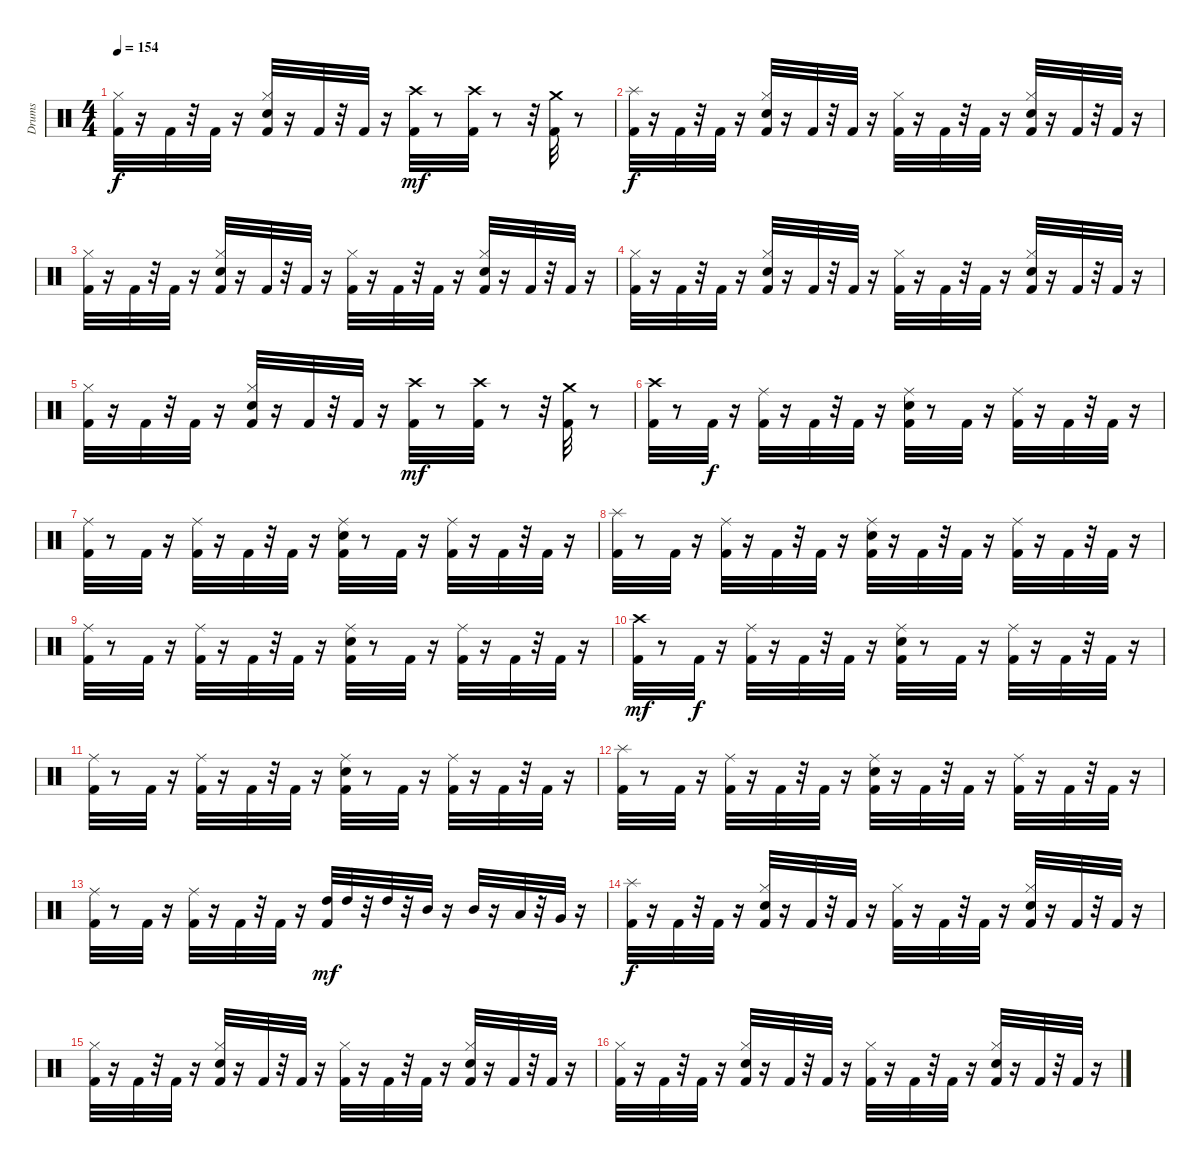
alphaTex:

\track ("Drums" "Drums") {instrument percussion}
\staff {score}
\articulation defaults
\ts (4 4)
\tempo 154
\clef neutral
\ks c
("Kick (hit) 2" "Hi-Hat (closed)").32{dy f} r.16 "Kick (hit) 2".32 r.32 "Kick (hit) 2".32 r.16 ("Kick (hit) 2" "Snare (hit) 2" "Hi-Hat (closed)").32 r.16 "Kick (hit) 2".32 r.32 "Kick (hit) 2".32 r.16 ("Kick (hit) 2" "Crash high (hit)").32{dy mf} r.8 ("Kick (hit) 2" "Crash high (hit)").32 r.8 r.32 ("Kick (hit) 2" "Crash medium (hit)").32 r.8 |
("Kick (hit) 2" "Splash (hit)").32{dy f} r.16 "Kick (hit) 2".32 r.32 "Kick (hit) 2".32 r.16 ("Kick (hit) 2" "Snare (hit) 2" "Hi-Hat (closed)").32 r.16 "Kick (hit) 2".32 r.32 "Kick (hit) 2".32 r.16 ("Kick (hit) 2" "Hi-Hat (closed)").32 r.16 "Kick (hit) 2".32 r.32 "Kick (hit) 2".32 r.16 ("Kick (hit) 2" "Snare (hit) 2" "Hi-Hat (closed)").32 r.16 "Kick (hit) 2".32 r.32 "Kick (hit) 2".32 r.16 |
("Kick (hit) 2" "Hi-Hat (closed)").32 r.16 "Kick (hit) 2".32 r.32 "Kick (hit) 2".32 r.16 ("Kick (hit) 2" "Snare (hit) 2" "Hi-Hat (closed)").32 r.16 "Kick (hit) 2".32 r.32 "Kick (hit) 2".32 r.16 ("Kick (hit) 2" "Hi-Hat (closed)").32 r.16 "Kick (hit) 2".32 r.32 "Kick (hit) 2".32 r.16 ("Kick (hit) 2" "Snare (hit) 2" "Hi-Hat (closed)").32 r.16 "Kick (hit) 2".32 r.32 "Kick (hit) 2".32 r.16 |
("Kick (hit) 2" "Hi-Hat (closed)").32 r.16 "Kick (hit) 2".32 r.32 "Kick (hit) 2".32 r.16 ("Kick (hit) 2" "Snare (hit) 2" "Hi-Hat (closed)").32 r.16 "Kick (hit) 2".32 r.32 "Kick (hit) 2".32 r.16 ("Kick (hit) 2" "Hi-Hat (closed)").32 r.16 "Kick (hit) 2".32 r.32 "Kick (hit) 2".32 r.16 ("Kick (hit) 2" "Snare (hit) 2" "Hi-Hat (closed)").32 r.16 "Kick (hit) 2".32 r.32 "Kick (hit) 2".32 r.16 |
("Kick (hit) 2" "Hi-Hat (closed)").32 r.16 "Kick (hit) 2".32 r.32 "Kick (hit) 2".32 r.16 ("Kick (hit) 2" "Snare (hit) 2" "Hi-Hat (closed)").32 r.16 "Kick (hit) 2".32 r.32 "Kick (hit) 2".32 r.16 ("Kick (hit) 2" "Crash high (hit)").32{dy mf} r.8 ("Kick (hit) 2" "Crash high (hit)").32 r.8 r.32 ("Kick (hit) 2" "Crash medium (hit)").32 r.8 |
("Kick (hit) 2" "Crash high (hit)").32 r.8 "Kick (hit) 2".32{dy f} r.16 ("Kick (hit) 2" "Ride (middle)").32 r.16 "Kick (hit) 2".32 r.32 "Kick (hit) 2".32 r.16 ("Kick (hit) 2" "Snare (hit) 2" "Ride (middle)").32 r.8 "Kick (hit) 2".32 r.16 ("Kick (hit) 2" "Ride (middle)").32 r.16 "Kick (hit) 2".32 r.32 "Kick (hit) 2".32 r.16 |
("Kick (hit) 2" "Ride (middle)").32 r.8 "Kick (hit) 2".32 r.16 ("Kick (hit) 2" "Ride (middle)").32 r.16 "Kick (hit) 2".32 r.32 "Kick (hit) 2".32 r.16 ("Kick (hit) 2" "Snare (hit) 2" "Ride (middle)").32 r.8 "Kick (hit) 2".32 r.16 ("Kick (hit) 2" "Ride (middle)").32 r.16 "Kick (hit) 2".32 r.32 "Kick (hit) 2".32 r.16 |
("Kick (hit) 2" "Splash (hit)").32 r.8 "Kick (hit) 2".32 r.16 ("Kick (hit) 2" "Ride (middle)").32 r.16 "Kick (hit) 2".32 r.32 "Kick (hit) 2".32 r.16 ("Kick (hit) 2" "Snare (hit) 2" "Ride (middle)").32 r.16 "Kick (hit) 2".32 r.32 "Kick (hit) 2".32 r.16 ("Kick (hit) 2" "Ride (middle)").32 r.16 "Kick (hit) 2".32 r.32 "Kick (hit) 2".32 r.16 |
("Kick (hit) 2" "Ride (middle)").32 r.8 "Kick (hit) 2".32 r.16 ("Kick (hit) 2" "Ride (middle)").32 r.16 "Kick (hit) 2".32 r.32 "Kick (hit) 2".32 r.16 ("Kick (hit) 2" "Snare (hit) 2" "Ride (middle)").32 r.8 "Kick (hit) 2".32 r.16 ("Kick (hit) 2" "Ride (middle)").32 r.16 "Kick (hit) 2".32 r.32 "Kick (hit) 2".32 r.16 |
("Kick (hit) 2" "Crash high (hit)").32{dy mf} r.8 "Kick (hit) 2".32{dy f} r.16 ("Kick (hit) 2" "Ride (middle)").32 r.16 "Kick (hit) 2".32 r.32 "Kick (hit) 2".32 r.16 ("Kick (hit) 2" "Snare (hit) 2" "Ride (middle)").32 r.8 "Kick (hit) 2".32 r.16 ("Kick (hit) 2" "Ride (middle)").32 r.16 "Kick (hit) 2".32 r.32 "Kick (hit) 2".32 r.16 |
("Kick (hit) 2" "Ride (middle)").32 r.8 "Kick (hit) 2".32 r.16 ("Kick (hit) 2" "Ride (middle)").32 r.16 "Kick (hit) 2".32 r.32 "Kick (hit) 2".32 r.16 ("Kick (hit) 2" "Snare (hit) 2" "Ride (middle)").32 r.8 "Kick (hit) 2".32 r.16 ("Kick (hit) 2" "Ride (middle)").32 r.16 "Kick (hit) 2".32 r.32 "Kick (hit) 2".32 r.16 |
("Kick (hit) 2" "Splash (hit)").32 r.8 "Kick (hit) 2".32 r.16 ("Kick (hit) 2" "Ride (middle)").32 r.16 "Kick (hit) 2".32 r.32 "Kick (hit) 2".32 r.16 ("Kick (hit) 2" "Snare (hit) 2" "Ride (middle)").32 r.16 "Kick (hit) 2".32 r.32 "Kick (hit) 2".32 r.16 ("Kick (hit) 2" "Ride (middle)").32 r.16 "Kick (hit) 2".32 r.32 "Kick (hit) 2".32 r.16 |
("Kick (hit) 2" "Ride (middle)").32 r.8 "Kick (hit) 2".32 r.16 ("Kick (hit) 2" "Ride (middle)").32 r.16 "Kick (hit) 2".32 r.32 "Kick (hit) 2".32 r.16 ("Kick (hit) 2" "High Tom (hit)").32{dy mf} "High Tom (hit)".32 r.32 "High Tom (hit)".32 r.32 "Mid Tom (hit)".32 r.16 "Mid Tom (hit)".32 r.16 "Low Tom (hit)".32 r.32 "Very Low Tom (hit)".32 r.16 |
("Kick (hit) 2" "Splash (hit)").32{dy f} r.16 "Kick (hit) 2".32 r.32 "Kick (hit) 2".32 r.16 ("Kick (hit) 2" "Snare (hit) 2" "Hi-Hat (closed)").32 r.16 "Kick (hit) 2".32 r.32 "Kick (hit) 2".32 r.16 ("Kick (hit) 2" "Hi-Hat (closed)").32 r.16 "Kick (hit) 2".32 r.32 "Kick (hit) 2".32 r.16 ("Kick (hit) 2" "Snare (hit) 2" "Hi-Hat (closed)").32 r.16 "Kick (hit) 2".32 r.32 "Kick (hit) 2".32 r.16 |
("Kick (hit) 2" "Hi-Hat (closed)").32 r.16 "Kick (hit) 2".32 r.32 "Kick (hit) 2".32 r.16 ("Kick (hit) 2" "Snare (hit) 2" "Hi-Hat (closed)").32 r.16 "Kick (hit) 2".32 r.32 "Kick (hit) 2".32 r.16 ("Kick (hit) 2" "Hi-Hat (closed)").32 r.16 "Kick (hit) 2".32 r.32 "Kick (hit) 2".32 r.16 ("Kick (hit) 2" "Snare (hit) 2" "Hi-Hat (closed)").32 r.16 "Kick (hit) 2".32 r.32 "Kick (hit) 2".32 r.16 |
("Kick (hit) 2" "Hi-Hat (closed)").32 r.16 "Kick (hit) 2".32 r.32 "Kick (hit) 2".32 r.16 ("Kick (hit) 2" "Snare (hit) 2" "Hi-Hat (closed)").32 r.16 "Kick (hit) 2".32 r.32 "Kick (hit) 2".32 r.16 ("Kick (hit) 2" "Hi-Hat (closed)").32 r.16 "Kick (hit) 2".32 r.32 "Kick (hit) 2".32 r.16 ("Kick (hit) 2" "Snare (hit) 2" "Hi-Hat (closed)").32 r.16 "Kick (hit) 2".32 r.32 "Kick (hit) 2".32 r.16
